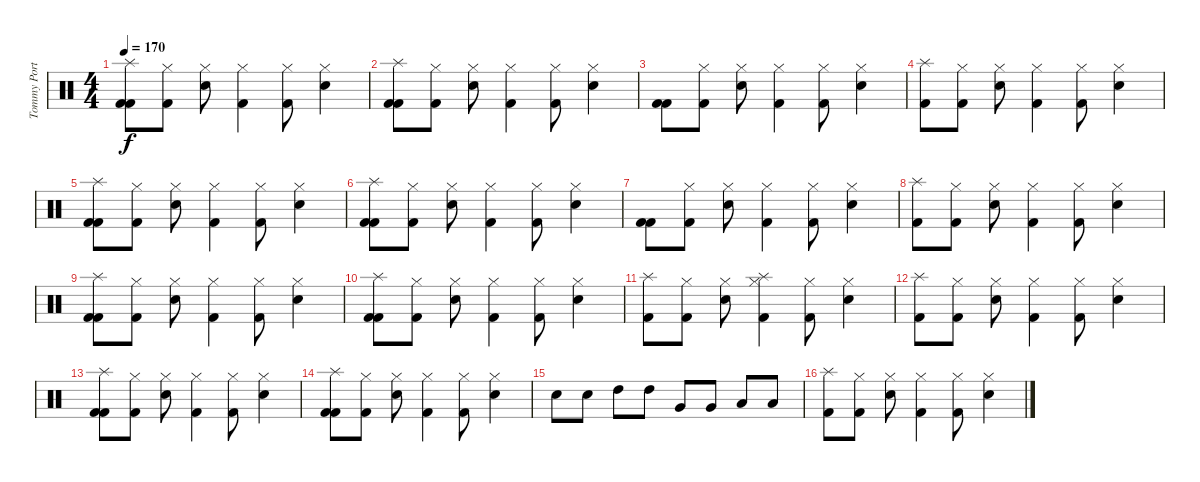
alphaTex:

\track ("Tommy Portimo" "Tommy Port") {instrument percussion}
\staff {score}
\articulation defaults
\ts (4 4)
\tempo 170
\clef neutral
\ks c
("Splash (hit)" "Kick (hit) 2" "Kick (hit) 2").8{dy f} ("Kick (hit) 2" "Hi-Hat (closed)").8 ("Electric Snare (hit)" "Hi-Hat (closed)").8 ("Kick (hit) 2" "Hi-Hat (closed)").4 ("Kick (hit) 2" "Hi-Hat (closed)").8 ("Electric Snare (hit)" "Hi-Hat (closed)").4 |
("Splash (hit)" "Kick (hit) 2" "Kick (hit) 2").8 ("Kick (hit) 2" "Hi-Hat (closed)").8 ("Electric Snare (hit)" "Hi-Hat (closed)").8 ("Kick (hit) 2" "Hi-Hat (closed)").4 ("Kick (hit) 2" "Hi-Hat (closed)").8 ("Electric Snare (hit)" "Hi-Hat (closed)").4 |
("Kick (hit) 2" "Kick (hit) 2").8 ("Kick (hit) 2" "Hi-Hat (closed)").8 ("Electric Snare (hit)" "Hi-Hat (closed)").8 ("Kick (hit) 2" "Hi-Hat (closed)").4 ("Kick (hit) 2" "Hi-Hat (closed)").8 ("Electric Snare (hit)" "Hi-Hat (closed)").4 |
("Splash (hit)" "Kick (hit) 2").8 ("Kick (hit) 2" "Hi-Hat (closed)").8 ("Electric Snare (hit)" "Hi-Hat (closed)").8 ("Kick (hit) 2" "Hi-Hat (closed)").4 ("Kick (hit) 2" "Hi-Hat (closed)").8 ("Electric Snare (hit)" "Hi-Hat (closed)").4 |
("Splash (hit)" "Kick (hit) 2" "Kick (hit) 2").8 ("Kick (hit) 2" "Hi-Hat (closed)").8 ("Electric Snare (hit)" "Hi-Hat (closed)").8 ("Kick (hit) 2" "Hi-Hat (closed)").4 ("Kick (hit) 2" "Hi-Hat (closed)").8 ("Electric Snare (hit)" "Hi-Hat (closed)").4 |
("Splash (hit)" "Kick (hit) 2" "Kick (hit) 2").8 ("Kick (hit) 2" "Hi-Hat (closed)").8 ("Electric Snare (hit)" "Hi-Hat (closed)").8 ("Kick (hit) 2" "Hi-Hat (closed)").4 ("Kick (hit) 2" "Hi-Hat (closed)").8 ("Electric Snare (hit)" "Hi-Hat (closed)").4 |
("Kick (hit) 2" "Kick (hit) 2").8 ("Kick (hit) 2" "Hi-Hat (closed)").8 ("Electric Snare (hit)" "Hi-Hat (closed)").8 ("Kick (hit) 2" "Hi-Hat (closed)").4 ("Kick (hit) 2" "Hi-Hat (closed)").8 ("Electric Snare (hit)" "Hi-Hat (closed)").4 |
("Splash (hit)" "Kick (hit) 2").8 ("Kick (hit) 2" "Hi-Hat (closed)").8 ("Electric Snare (hit)" "Hi-Hat (closed)").8 ("Kick (hit) 2" "Hi-Hat (closed)").4 ("Kick (hit) 2" "Hi-Hat (closed)").8 ("Electric Snare (hit)" "Hi-Hat (closed)").4 |
("Splash (hit)" "Kick (hit) 2" "Kick (hit) 2").8 ("Kick (hit) 2" "Hi-Hat (closed)").8 ("Electric Snare (hit)" "Hi-Hat (closed)").8 ("Kick (hit) 2" "Hi-Hat (closed)").4 ("Kick (hit) 2" "Hi-Hat (closed)").8 ("Electric Snare (hit)" "Hi-Hat (closed)").4 |
("Splash (hit)" "Kick (hit) 2" "Kick (hit) 2").8 ("Kick (hit) 2" "Hi-Hat (closed)").8 ("Electric Snare (hit)" "Hi-Hat (closed)").8 ("Kick (hit) 2" "Hi-Hat (closed)").4 ("Kick (hit) 2" "Hi-Hat (closed)").8 ("Electric Snare (hit)" "Hi-Hat (closed)").4 |
("Splash (hit)" "Kick (hit) 2").8 ("Kick (hit) 2" "Hi-Hat (closed)").8 ("Electric Snare (hit)" "Hi-Hat (closed)").8 ("Splash (hit)" "Kick (hit) 2" "Hi-Hat (closed)").4 ("Kick (hit) 2" "Hi-Hat (closed)").8 ("Electric Snare (hit)" "Hi-Hat (closed)").4 |
("Splash (hit)" "Kick (hit) 2").8 ("Kick (hit) 2" "Hi-Hat (closed)").8 ("Electric Snare (hit)" "Hi-Hat (closed)").8 ("Kick (hit) 2" "Hi-Hat (closed)").4 ("Kick (hit) 2" "Hi-Hat (closed)").8 ("Electric Snare (hit)" "Hi-Hat (closed)").4 |
("Splash (hit)" "Kick (hit) 2" "Kick (hit) 2").8 ("Kick (hit) 2" "Hi-Hat (closed)").8 ("Electric Snare (hit)" "Hi-Hat (closed)").8 ("Kick (hit) 2" "Hi-Hat (closed)").4 ("Kick (hit) 2" "Hi-Hat (closed)").8 ("Electric Snare (hit)" "Hi-Hat (closed)").4 |
("Splash (hit)" "Kick (hit) 2" "Kick (hit) 2").8 ("Kick (hit) 2" "Hi-Hat (closed)").8 ("Electric Snare (hit)" "Hi-Hat (closed)").8 ("Kick (hit) 2" "Hi-Hat (closed)").4 ("Kick (hit) 2" "Hi-Hat (closed)").8 ("Electric Snare (hit)" "Hi-Hat (closed)").4 |
"Snare (hit) 2".8 "Snare (hit) 2".8 "High Tom (hit)".8 "High Tom (hit)".8 "Very Low Tom (hit)".8 "Very Low Tom (hit)".8 "Low Floor Tom (hit)".8 "Low Floor Tom (hit)".8 |
("Splash (hit)" "Kick (hit) 2").8 ("Kick (hit) 2" "Hi-Hat (closed)").8 ("Electric Snare (hit)" "Hi-Hat (closed)").8 ("Kick (hit) 2" "Hi-Hat (closed)").4 ("Kick (hit) 2" "Hi-Hat (closed)").8 ("Electric Snare (hit)" "Hi-Hat (closed)").4
